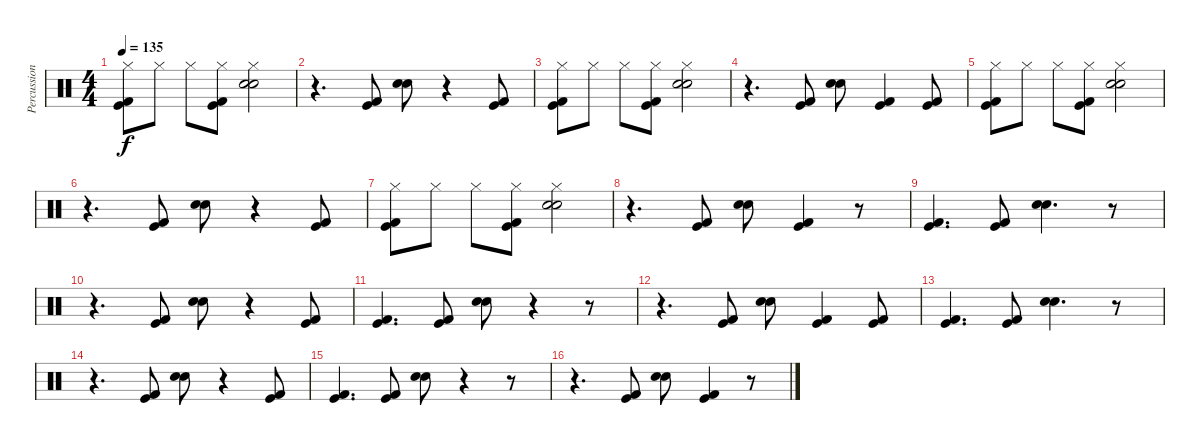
\track ("Percussion" "Percussion") {instrument percussion}
\staff {score}
\articulation defaults
\ts (4 4)
\tempo 135
\clef neutral
\ks c
("Hi-Hat (closed)" "Kick (hit) 2" "Kick (hit)").8{dy f} "Hi-Hat (closed)".8 "Hi-Hat (closed)".8 ("Hi-Hat (closed)" "Kick (hit) 2" "Kick (hit)").8 ("Hi-Hat (closed)" "Hand Clap (hit)" "Electric Snare (hit)").2 |
r.4{d} ("Kick (hit) 2" "Kick (hit)").8 ("Electric Snare (hit)" "Hand Clap (hit)").8 r.4 ("Kick (hit) 2" "Kick (hit)").8 |
("Hi-Hat (closed)" "Kick (hit) 2" "Kick (hit)").8 "Hi-Hat (closed)".8 "Hi-Hat (closed)".8 ("Hi-Hat (closed)" "Kick (hit) 2" "Kick (hit)").8 ("Hi-Hat (closed)" "Hand Clap (hit)" "Electric Snare (hit)").2 |
r.4{d} ("Kick (hit) 2" "Kick (hit)").8 ("Electric Snare (hit)" "Hand Clap (hit)").8 ("Kick (hit) 2" "Kick (hit)").4 ("Kick (hit) 2" "Kick (hit)").8 |
("Hi-Hat (closed)" "Kick (hit) 2" "Kick (hit)").8 "Hi-Hat (closed)".8 "Hi-Hat (closed)".8 ("Hi-Hat (closed)" "Kick (hit) 2" "Kick (hit)").8 ("Hi-Hat (closed)" "Hand Clap (hit)" "Electric Snare (hit)").2 |
r.4{d} ("Kick (hit) 2" "Kick (hit)").8 ("Electric Snare (hit)" "Hand Clap (hit)").8 r.4 ("Kick (hit) 2" "Kick (hit)").8 |
("Hi-Hat (closed)" "Kick (hit) 2" "Kick (hit)").8 "Hi-Hat (closed)".8 "Hi-Hat (closed)".8 ("Hi-Hat (closed)" "Kick (hit) 2" "Kick (hit)").8 ("Hi-Hat (closed)" "Hand Clap (hit)" "Electric Snare (hit)").2 |
r.4{d} ("Kick (hit) 2" "Kick (hit)").8 ("Electric Snare (hit)" "Hand Clap (hit)").8 ("Kick (hit) 2" "Kick (hit)").4 r.8 |
("Kick (hit) 2" "Kick (hit)").4{d} ("Kick (hit) 2" "Kick (hit)").8 ("Electric Snare (hit)" "Hand Clap (hit)").4{d} r.8 |
r.4{d} ("Kick (hit) 2" "Kick (hit)").8 ("Electric Snare (hit)" "Hand Clap (hit)").8 r.4 ("Kick (hit) 2" "Kick (hit)").8 |
("Kick (hit) 2" "Kick (hit)").4{d} ("Kick (hit) 2" "Kick (hit)").8 ("Electric Snare (hit)" "Hand Clap (hit)").8 r.4 r.8 |
r.4{d} ("Kick (hit) 2" "Kick (hit)").8 ("Electric Snare (hit)" "Hand Clap (hit)").8 ("Kick (hit) 2" "Kick (hit)").4 ("Kick (hit) 2" "Kick (hit)").8 |
("Kick (hit) 2" "Kick (hit)").4{d} ("Kick (hit) 2" "Kick (hit)").8 ("Electric Snare (hit)" "Hand Clap (hit)").4{d} r.8 |
r.4{d} ("Kick (hit) 2" "Kick (hit)").8 ("Electric Snare (hit)" "Hand Clap (hit)").8 r.4 ("Kick (hit) 2" "Kick (hit)").8 |
("Kick (hit) 2" "Kick (hit)").4{d} ("Kick (hit) 2" "Kick (hit)").8 ("Electric Snare (hit)" "Hand Clap (hit)").8 r.4 r.8 |
r.4{d} ("Kick (hit) 2" "Kick (hit)").8 ("Electric Snare (hit)" "Hand Clap (hit)").8 ("Kick (hit) 2" "Kick (hit)").4 r.8
